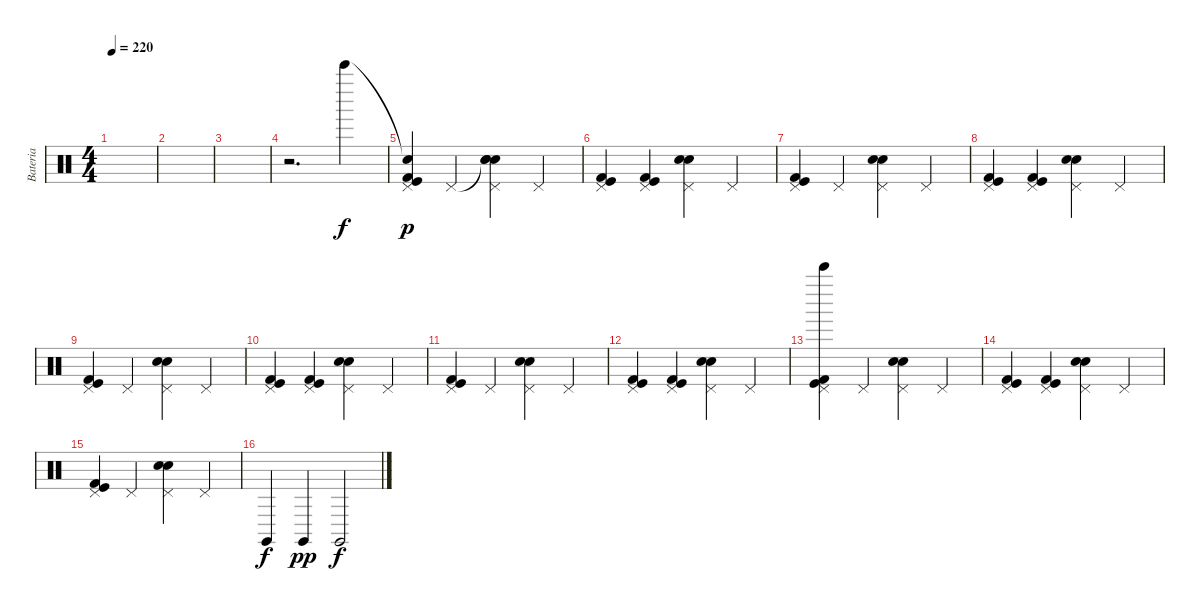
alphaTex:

\track ("Bateria" "Bateria") {instrument percussion}
\staff {score}
\articulation defaults
\ts (4 4)
\tempo 220
\clef neutral
\ks c
|
|
|
r.2{d} "Bell Tree (hit)".4{bd 480} |
("Snare (hit)"{t} "Pedal Hi-Hat (hit)" "Kick (hit) 2" "Kick (hit)").4{dy p} "Pedal Hi-Hat (hit)".4 ("Snare (hit)"{t} "Pedal Hi-Hat (hit)" "Electric Snare (hit)" "Snare (hit) 2").4 "Pedal Hi-Hat (hit)".4 |
("Pedal Hi-Hat (hit)" "Kick (hit) 2" "Kick (hit)").4 ("Pedal Hi-Hat (hit)" "Kick (hit) 2" "Kick (hit)").4 ("Pedal Hi-Hat (hit)" "Electric Snare (hit)" "Snare (hit) 2").4 "Pedal Hi-Hat (hit)".4 |
("Pedal Hi-Hat (hit)" "Kick (hit) 2" "Kick (hit)").4 "Pedal Hi-Hat (hit)".4 ("Pedal Hi-Hat (hit)" "Electric Snare (hit)" "Snare (hit) 2").4 "Pedal Hi-Hat (hit)".4 |
("Pedal Hi-Hat (hit)" "Kick (hit) 2" "Kick (hit)").4 ("Pedal Hi-Hat (hit)" "Kick (hit) 2" "Kick (hit)").4 ("Pedal Hi-Hat (hit)" "Electric Snare (hit)" "Snare (hit) 2").4 "Pedal Hi-Hat (hit)".4 |
("Pedal Hi-Hat (hit)" "Kick (hit) 2" "Kick (hit)").4 "Pedal Hi-Hat (hit)".4 ("Pedal Hi-Hat (hit)" "Electric Snare (hit)" "Snare (hit) 2").4 "Pedal Hi-Hat (hit)".4 |
("Pedal Hi-Hat (hit)" "Kick (hit) 2" "Kick (hit)").4 ("Pedal Hi-Hat (hit)" "Kick (hit) 2" "Kick (hit)").4 ("Pedal Hi-Hat (hit)" "Electric Snare (hit)" "Snare (hit) 2").4 "Pedal Hi-Hat (hit)".4 |
("Pedal Hi-Hat (hit)" "Kick (hit) 2" "Kick (hit)").4 "Pedal Hi-Hat (hit)".4 ("Pedal Hi-Hat (hit)" "Electric Snare (hit)" "Snare (hit) 2").4 "Pedal Hi-Hat (hit)".4 |
("Pedal Hi-Hat (hit)" "Kick (hit) 2" "Kick (hit)").4 ("Pedal Hi-Hat (hit)" "Kick (hit) 2" "Kick (hit)").4 ("Pedal Hi-Hat (hit)" "Electric Snare (hit)" "Snare (hit) 2").4 "Pedal Hi-Hat (hit)".4 |
("Bell Tree (hit)" "Pedal Hi-Hat (hit)" "Kick (hit) 2" "Kick (hit)").4 "Pedal Hi-Hat (hit)".4 ("Pedal Hi-Hat (hit)" "Electric Snare (hit)" "Snare (hit) 2").4 "Pedal Hi-Hat (hit)".4 |
("Pedal Hi-Hat (hit)" "Kick (hit) 2" "Kick (hit)").4 ("Pedal Hi-Hat (hit)" "Kick (hit) 2" "Kick (hit)").4 ("Pedal Hi-Hat (hit)" "Electric Snare (hit)" "Snare (hit) 2").4 "Pedal Hi-Hat (hit)".4 |
("Pedal Hi-Hat (hit)" "Kick (hit) 2" "Kick (hit)").4 "Pedal Hi-Hat (hit)".4 ("Pedal Hi-Hat (hit)" "Electric Snare (hit)" "Snare (hit) 2").4 "Pedal Hi-Hat (hit)".4 |
"Claves (hit)".4{dy f} "Claves (hit)".4{dy pp} "Claves (hit)".2{dy f}
